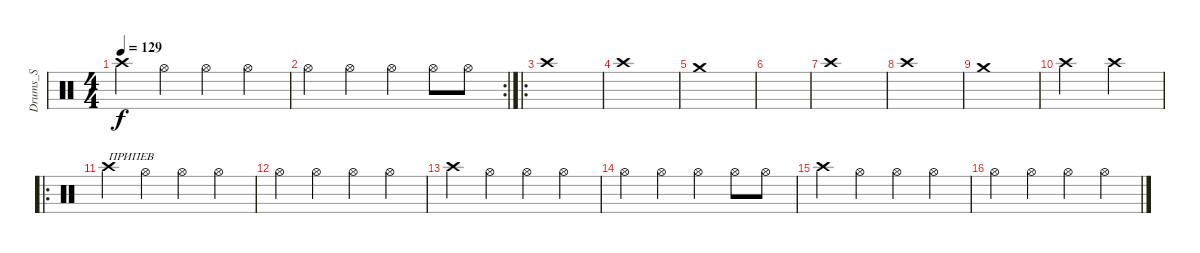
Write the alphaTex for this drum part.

\track ("Drums_S" "Drums_S") {instrument percussion}
\staff {score}
\articulation defaults
\ts (4 4)
\tempo 129
\clef neutral
\ks c "Crash high (hit)".4{dy f} "Hi-Hat (open)".4 "Hi-Hat (open)".4 "Hi-Hat (open)".4
|
\rc 2 "Hi-Hat (open)".4 "Hi-Hat (open)".4 "Hi-Hat (open)".4 "Hi-Hat (open)".8 "Hi-Hat (open)".8
|
\ro "Crash high (hit)".1
|
"Crash high (hit)".1 |
"Crash medium (hit)".1 |
|
"Crash high (hit)".1 |
"Crash high (hit)".1 |
"Crash medium (hit)".1 |
"Crash high (hit)".2 "Crash high (hit)".2 |
\ro "Crash high (hit)".4{txt "ПРИПЕВ"} "Hi-Hat (open)".4 "Hi-Hat (open)".4 "Hi-Hat (open)".4
|
"Hi-Hat (open)".4 "Hi-Hat (open)".4 "Hi-Hat (open)".4 "Hi-Hat (open)".4 |
"Crash high (hit)".4 "Hi-Hat (open)".4 "Hi-Hat (open)".4 "Hi-Hat (open)".4 |
"Hi-Hat (open)".4 "Hi-Hat (open)".4 "Hi-Hat (open)".4 "Hi-Hat (open)".8 "Hi-Hat (open)".8 |
"Crash high (hit)".4 "Hi-Hat (open)".4 "Hi-Hat (open)".4 "Hi-Hat (open)".4 |
"Hi-Hat (open)".4 "Hi-Hat (open)".4 "Hi-Hat (open)".4 "Hi-Hat (open)".4
